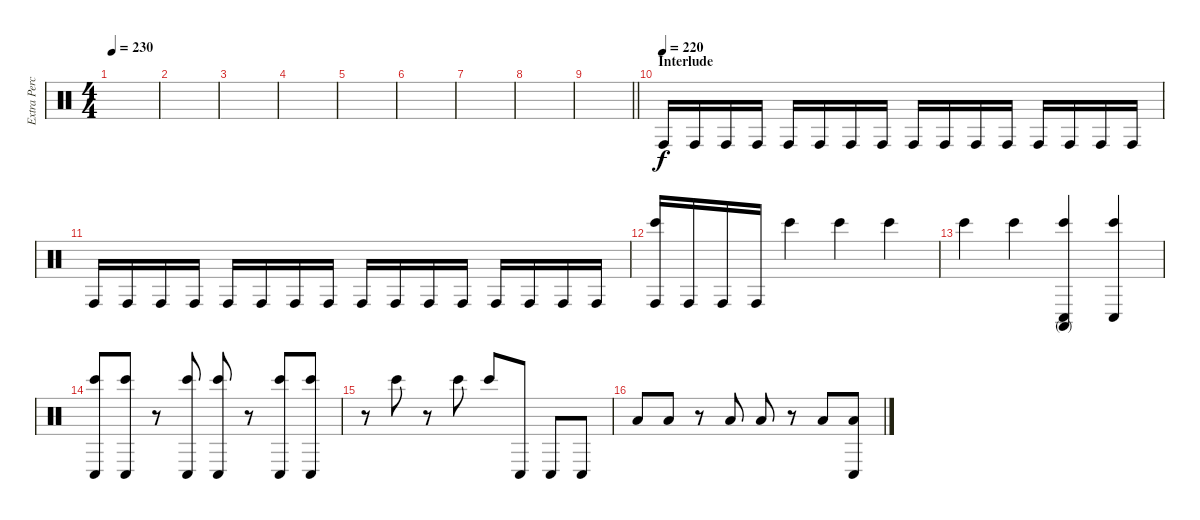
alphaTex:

\track ("Extra Percussion" "Extra Perc") {instrument percussion}
\staff {score}
\articulation defaults
\ts (4 4)
\tempo 230
\clef neutral
\ks c
|
|
|
|
|
|
|
|
\barLineRight lightlight
|
\section ("" "Interlude")
\tempo (220)
"Conga high (hit)".16 "Conga high (hit)".16 "Conga high (hit)".16 "Conga high (hit)".16 "Conga high (hit)".16 "Conga high (hit)".16 "Conga high (hit)".16 "Conga high (hit)".16 "Conga high (hit)".16 "Conga high (hit)".16 "Conga high (hit)".16 "Conga high (hit)".16 "Conga high (hit)".16 "Conga high (hit)".16 "Conga high (hit)".16 "Conga high (hit)".16 |
"Conga high (hit)".16 "Conga high (hit)".16 "Conga high (hit)".16 "Conga high (hit)".16 "Conga high (hit)".16 "Conga high (hit)".16 "Conga high (hit)".16 "Conga high (hit)".16 "Conga high (hit)".16 "Conga high (hit)".16 "Conga high (hit)".16 "Conga high (hit)".16 "Conga high (hit)".16 "Conga high (hit)".16 "Conga high (hit)".16 "Conga high (hit)".16 |
("Bongo High (hit)" "Conga high (hit)").16 "Conga high (hit)".16 "Conga high (hit)".16 "Conga high (hit)".16 "Bongo High (hit)".4 "Bongo High (hit)".4 "Bongo High (hit)".4 |
"Bongo High (hit)".4 "Bongo High (hit)".4 ("Bongo High (hit)" "Conga low (hit)" "Conga high (mute)").4 ("Bongo High (hit)" "Conga low (hit)").4 |
("Bongo High (hit)" "Conga low (hit)").8 ("Bongo High (hit)" "Conga low (hit)").8 r.8 ("Bongo High (hit)" "Conga low (hit)").8 ("Bongo High (hit)" "Conga low (hit)").8 r.8 ("Bongo High (hit)" "Conga low (hit)").8 ("Bongo High (hit)" "Conga low (hit)").8 |
r.8 "Bongo High (hit)".8 r.8 "Bongo High (hit)".8 "Bongo High (hit)".8 "Conga low (hit)".8 "Conga low (hit)".8 "Conga low (hit)".8 |
"Low Floor Tom (hit)".8 "Low Floor Tom (hit)".8 r.8 "Low Floor Tom (hit)".8 "Low Floor Tom (hit)".8 r.8 "Low Floor Tom (hit)".8 ("Conga low (hit)" "Low Floor Tom (hit)").8
